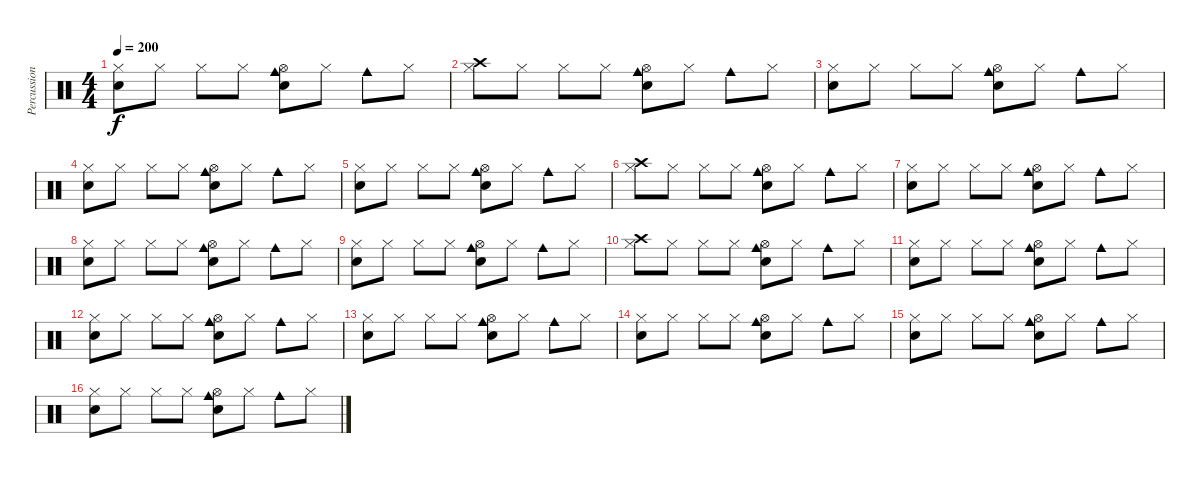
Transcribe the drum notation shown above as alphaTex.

\track ("Percussion" "Percussion") {instrument percussion}
\staff {score}
\articulation defaults
\ts (4 4)
\tempo 200
\clef neutral
\ks c
("Hi-Hat (closed)" "Electric Snare (hit)").8{dy f} "Hi-Hat (closed)".8 "Hi-Hat (closed)".8 "Hi-Hat (closed)".8 ("Cowbell medium (hit)" "Snare (hit) 2" "Hi-Hat (open)").8 "Hi-Hat (closed)".8 "Cowbell medium (hit)".8 "Hi-Hat (closed)".8 |
("Hi-Hat (closed)" "Crash high (hit)").8 "Hi-Hat (closed)".8 "Hi-Hat (closed)".8 "Hi-Hat (closed)".8 ("Cowbell medium (hit)" "Snare (hit) 2" "Hi-Hat (open)").8 "Hi-Hat (closed)".8 "Cowbell medium (hit)".8 "Hi-Hat (closed)".8 |
("Hi-Hat (closed)" "Electric Snare (hit)").8 "Hi-Hat (closed)".8 "Hi-Hat (closed)".8 "Hi-Hat (closed)".8 ("Cowbell medium (hit)" "Snare (hit) 2" "Hi-Hat (open)").8 "Hi-Hat (closed)".8 "Cowbell medium (hit)".8 "Hi-Hat (closed)".8 |
("Hi-Hat (closed)" "Electric Snare (hit)").8 "Hi-Hat (closed)".8 "Hi-Hat (closed)".8 "Hi-Hat (closed)".8 ("Cowbell medium (hit)" "Snare (hit) 2" "Hi-Hat (open)").8 "Hi-Hat (closed)".8 "Cowbell medium (hit)".8 "Hi-Hat (closed)".8 |
("Hi-Hat (closed)" "Electric Snare (hit)").8 "Hi-Hat (closed)".8 "Hi-Hat (closed)".8 "Hi-Hat (closed)".8 ("Cowbell medium (hit)" "Snare (hit) 2" "Hi-Hat (open)").8 "Hi-Hat (closed)".8 "Cowbell medium (hit)".8 "Hi-Hat (closed)".8 |
("Hi-Hat (closed)" "Crash high (hit)").8 "Hi-Hat (closed)".8 "Hi-Hat (closed)".8 "Hi-Hat (closed)".8 ("Cowbell medium (hit)" "Snare (hit) 2" "Hi-Hat (open)").8 "Hi-Hat (closed)".8 "Cowbell medium (hit)".8 "Hi-Hat (closed)".8 |
("Hi-Hat (closed)" "Electric Snare (hit)").8 "Hi-Hat (closed)".8 "Hi-Hat (closed)".8 "Hi-Hat (closed)".8 ("Cowbell medium (hit)" "Snare (hit) 2" "Hi-Hat (open)").8 "Hi-Hat (closed)".8 "Cowbell medium (hit)".8 "Hi-Hat (closed)".8 |
("Hi-Hat (closed)" "Electric Snare (hit)").8 "Hi-Hat (closed)".8 "Hi-Hat (closed)".8 "Hi-Hat (closed)".8 ("Cowbell medium (hit)" "Snare (hit) 2" "Hi-Hat (open)").8 "Hi-Hat (closed)".8 "Cowbell medium (hit)".8 "Hi-Hat (closed)".8 |
("Hi-Hat (closed)" "Electric Snare (hit)").8 "Hi-Hat (closed)".8 "Hi-Hat (closed)".8 "Hi-Hat (closed)".8 ("Cowbell medium (hit)" "Snare (hit) 2" "Hi-Hat (open)").8 "Hi-Hat (closed)".8 "Cowbell medium (hit)".8 "Hi-Hat (closed)".8 |
("Hi-Hat (closed)" "Crash high (hit)").8 "Hi-Hat (closed)".8 "Hi-Hat (closed)".8 "Hi-Hat (closed)".8 ("Cowbell medium (hit)" "Snare (hit) 2" "Hi-Hat (open)").8 "Hi-Hat (closed)".8 "Cowbell medium (hit)".8 "Hi-Hat (closed)".8 |
("Hi-Hat (closed)" "Electric Snare (hit)").8 "Hi-Hat (closed)".8 "Hi-Hat (closed)".8 "Hi-Hat (closed)".8 ("Cowbell medium (hit)" "Snare (hit) 2" "Hi-Hat (open)").8 "Hi-Hat (closed)".8 "Cowbell medium (hit)".8 "Hi-Hat (closed)".8 |
("Hi-Hat (closed)" "Electric Snare (hit)").8 "Hi-Hat (closed)".8 "Hi-Hat (closed)".8 "Hi-Hat (closed)".8 ("Cowbell medium (hit)" "Snare (hit) 2" "Hi-Hat (open)").8 "Hi-Hat (closed)".8 "Cowbell medium (hit)".8 "Hi-Hat (closed)".8 |
("Hi-Hat (closed)" "Electric Snare (hit)").8 "Hi-Hat (closed)".8 "Hi-Hat (closed)".8 "Hi-Hat (closed)".8 ("Cowbell medium (hit)" "Snare (hit) 2" "Hi-Hat (open)").8 "Hi-Hat (closed)".8 "Cowbell medium (hit)".8 "Hi-Hat (closed)".8 |
("Hi-Hat (closed)" "Electric Snare (hit)").8 "Hi-Hat (closed)".8 "Hi-Hat (closed)".8 "Hi-Hat (closed)".8 ("Cowbell medium (hit)" "Snare (hit) 2" "Hi-Hat (open)").8 "Hi-Hat (closed)".8 "Cowbell medium (hit)".8 "Hi-Hat (closed)".8 |
("Hi-Hat (closed)" "Electric Snare (hit)").8 "Hi-Hat (closed)".8 "Hi-Hat (closed)".8 "Hi-Hat (closed)".8 ("Cowbell medium (hit)" "Snare (hit) 2" "Hi-Hat (open)").8 "Hi-Hat (closed)".8 "Cowbell medium (hit)".8 "Hi-Hat (closed)".8 |
("Hi-Hat (closed)" "Electric Snare (hit)").8 "Hi-Hat (closed)".8 "Hi-Hat (closed)".8 "Hi-Hat (closed)".8 ("Cowbell medium (hit)" "Snare (hit) 2" "Hi-Hat (open)").8 "Hi-Hat (closed)".8 "Cowbell medium (hit)".8 "Hi-Hat (closed)".8
